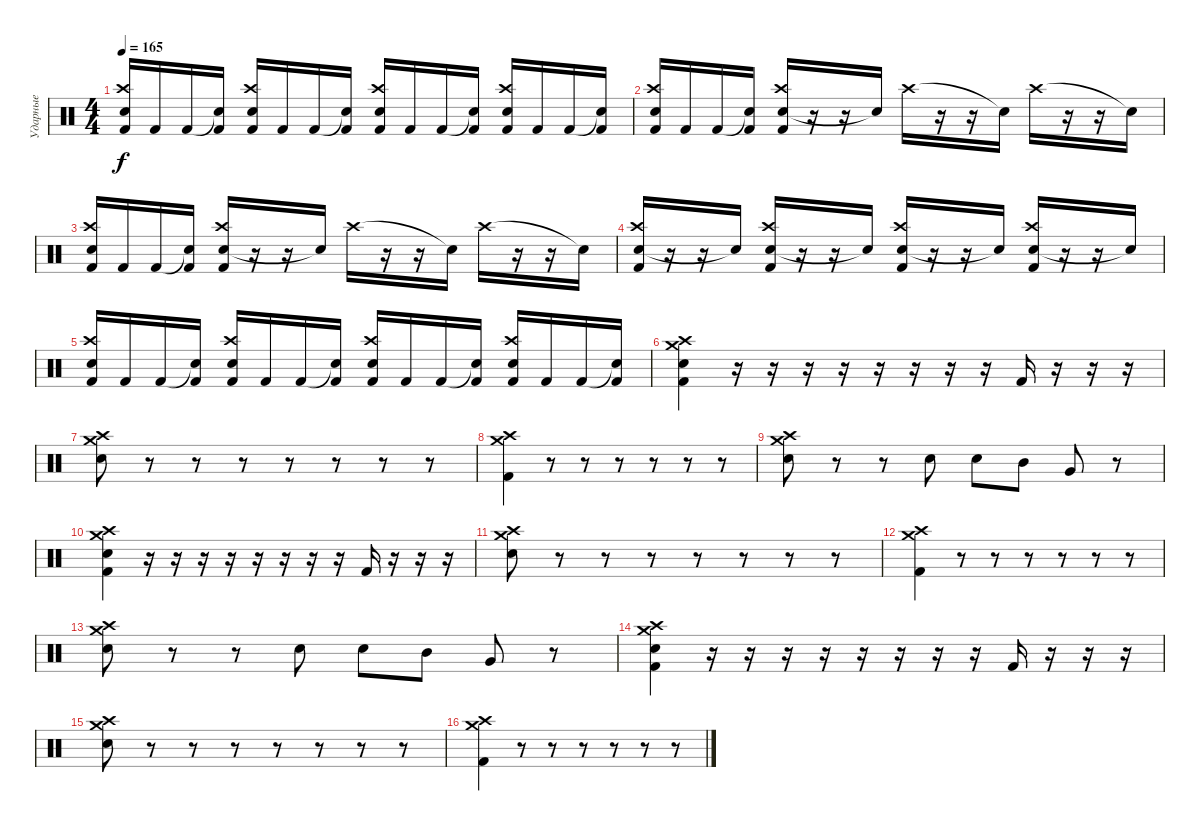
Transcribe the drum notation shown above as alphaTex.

\track ("Ударные" "Ударные") {instrument percussion}
\staff {score}
\articulation defaults
\ts (4 4)
\tempo 165
\clef neutral
\ks c
("Electric Snare (hit)" "Crash high (hit)" "Kick (hit) 2").16{dy f} "Kick (hit) 2".16 "Kick (hit) 2".16 ("Snare (hit)"{t} "Kick (hit) 2").16 ("Electric Snare (hit)" "Crash high (hit)" "Kick (hit) 2").16 "Kick (hit) 2".16 "Kick (hit) 2".16 ("Snare (hit)"{t} "Kick (hit) 2").16 ("Electric Snare (hit)" "Crash high (hit)" "Kick (hit) 2").16 "Kick (hit) 2".16 "Kick (hit) 2".16 ("Snare (hit)"{t} "Kick (hit) 2").16 ("Electric Snare (hit)" "Crash high (hit)" "Kick (hit) 2").16 "Kick (hit) 2".16 "Kick (hit) 2".16 ("Snare (hit)"{t} "Kick (hit) 2").16 |
("Electric Snare (hit)" "Crash high (hit)" "Kick (hit) 2").16 "Kick (hit) 2".16 "Kick (hit) 2".16 ("Snare (hit)"{t} "Kick (hit) 2").16 ("Electric Snare (hit)" "Crash high (hit)" "Kick (hit) 2").16 r.16 r.16 "Snare (hit)"{t}.16 "Crash high (hit)".16 r.16 r.16 "Snare (hit)"{t}.16 "Crash high (hit)".16 r.16 r.16 "Snare (hit)"{t}.16 |
("Electric Snare (hit)" "Crash high (hit)" "Kick (hit) 2").16 "Kick (hit) 2".16 "Kick (hit) 2".16 ("Snare (hit)"{t} "Kick (hit) 2").16 ("Electric Snare (hit)" "Crash high (hit)" "Kick (hit) 2").16 r.16 r.16 "Snare (hit)"{t}.16 "Crash high (hit)".16 r.16 r.16 "Snare (hit)"{t}.16 "Crash high (hit)".16 r.16 r.16 "Snare (hit)"{t}.16 |
("Electric Snare (hit)" "Crash high (hit)" "Kick (hit) 2").16 r.16 r.16 "Snare (hit)"{t}.16 ("Electric Snare (hit)" "Crash high (hit)" "Kick (hit) 2").16 r.16 r.16 "Snare (hit)"{t}.16 ("Electric Snare (hit)" "Crash high (hit)" "Kick (hit) 2").16 r.16 r.16 "Snare (hit)"{t}.16 ("Electric Snare (hit)" "Crash high (hit)" "Kick (hit) 2").16 r.16 r.16 "Snare (hit)"{t}.16 |
("Electric Snare (hit)" "Crash high (hit)" "Kick (hit) 2").16 "Kick (hit) 2".16 "Kick (hit) 2".16 ("Snare (hit)"{t} "Kick (hit) 2").16 ("Electric Snare (hit)" "Crash high (hit)" "Kick (hit) 2").16 "Kick (hit) 2".16 "Kick (hit) 2".16 ("Snare (hit)"{t} "Kick (hit) 2").16 ("Electric Snare (hit)" "Crash high (hit)" "Kick (hit) 2").16 "Kick (hit) 2".16 "Kick (hit) 2".16 ("Snare (hit)"{t} "Kick (hit) 2").16 ("Electric Snare (hit)" "Crash high (hit)" "Kick (hit) 2").16 "Kick (hit) 2".16 "Kick (hit) 2".16 ("Snare (hit)"{t} "Kick (hit) 2").16 |
("Electric Snare (hit)" "Crash high (hit)" "Crash medium (hit)" "Kick (hit) 2").4 r.16 r.16 r.16 r.16 r.16 r.16 r.16 r.16 "Kick (hit) 2".16 r.16 r.16 r.16 |
("Electric Snare (hit)" "Crash medium (hit)" "Crash high (hit)").8 r.8 r.8 r.8 r.8 r.8 r.8 r.8 |
("Crash high (hit)" "Crash medium (hit)" "Kick (hit) 2").4 r.8 r.8 r.8 r.8 r.8 r.8 |
("Electric Snare (hit)" "Crash medium (hit)" "Crash high (hit)").8 r.8 r.8 "Electric Snare (hit)".8 "Electric Snare (hit)".8 "Mid Tom (hit)".8 "Very Low Tom (hit)".8 r.8 |
("Electric Snare (hit)" "Crash high (hit)" "Crash medium (hit)" "Kick (hit) 2").4 r.16 r.16 r.16 r.16 r.16 r.16 r.16 r.16 "Kick (hit) 2".16 r.16 r.16 r.16 |
("Electric Snare (hit)" "Crash medium (hit)" "Crash high (hit)").8 r.8 r.8 r.8 r.8 r.8 r.8 r.8 |
("Crash high (hit)" "Crash medium (hit)" "Kick (hit) 2").4 r.8 r.8 r.8 r.8 r.8 r.8 |
("Electric Snare (hit)" "Crash medium (hit)" "Crash high (hit)").8 r.8 r.8 "Electric Snare (hit)".8 "Electric Snare (hit)".8 "Mid Tom (hit)".8 "Very Low Tom (hit)".8 r.8 |
("Electric Snare (hit)" "Crash high (hit)" "Crash medium (hit)" "Kick (hit) 2").4 r.16 r.16 r.16 r.16 r.16 r.16 r.16 r.16 "Kick (hit) 2".16 r.16 r.16 r.16 |
("Electric Snare (hit)" "Crash medium (hit)" "Crash high (hit)").8 r.8 r.8 r.8 r.8 r.8 r.8 r.8 |
("Crash high (hit)" "Crash medium (hit)" "Kick (hit) 2").4 r.8 r.8 r.8 r.8 r.8 r.8
